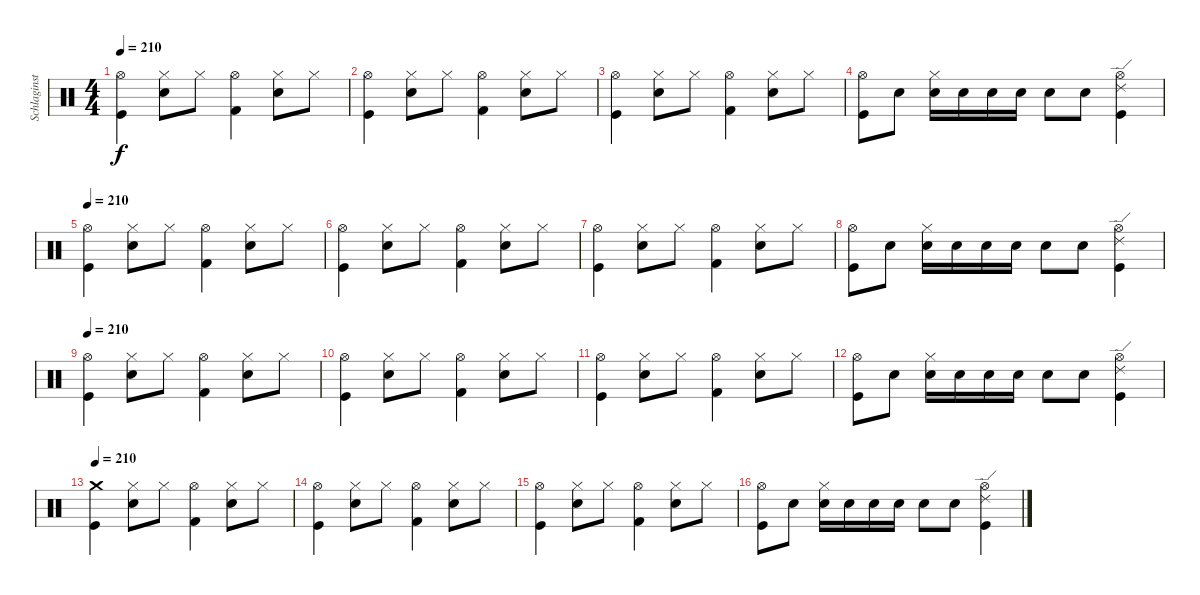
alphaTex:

\track ("Schlaginstrumente - Auswahl" "Schlaginst") {instrument percussion}
\staff {score}
\articulation defaults
\ts (4 4)
\tempo 210
\clef neutral
\ks c
("Hi-Hat (open)" "Kick (hit)").4{dy f} ("Hi-Hat (closed)" "Snare (hit) 2").8 "Hi-Hat (closed)".8 ("Hi-Hat (open)" "Kick (hit) 2").4 ("Hi-Hat (closed)" "Snare (hit) 2").8 "Hi-Hat (closed)".8 |
("Hi-Hat (open)" "Kick (hit)").4 ("Hi-Hat (closed)" "Snare (hit) 2").8 "Hi-Hat (closed)".8 ("Hi-Hat (open)" "Kick (hit) 2").4 ("Hi-Hat (closed)" "Snare (hit) 2").8 "Hi-Hat (closed)".8 |
("Hi-Hat (open)" "Kick (hit)").4 ("Hi-Hat (closed)" "Snare (hit) 2").8 "Hi-Hat (closed)".8 ("Hi-Hat (open)" "Kick (hit) 2").4 ("Hi-Hat (closed)" "Snare (hit) 2").8 "Hi-Hat (closed)".8 |
("Hi-Hat (open)" "Kick (hit)").8 "Snare (hit) 2".8 ("Hi-Hat (closed)" "Snare (hit) 2").16 "Snare (hit) 2".16 "Snare (hit) 2".16 "Snare (hit) 2".16 "Snare (hit) 2".8 "Snare (hit) 2".8 ("Hi-Hat (open)" "Ride (edge) 2" "Kick (hit)").4 |
\tempo 210
("Hi-Hat (open)" "Kick (hit)").4 ("Hi-Hat (closed)" "Snare (hit) 2").8 "Hi-Hat (closed)".8 ("Hi-Hat (open)" "Kick (hit) 2").4 ("Hi-Hat (closed)" "Snare (hit) 2").8 "Hi-Hat (closed)".8 |
("Hi-Hat (open)" "Kick (hit)").4 ("Hi-Hat (closed)" "Snare (hit) 2").8 "Hi-Hat (closed)".8 ("Hi-Hat (open)" "Kick (hit) 2").4 ("Hi-Hat (closed)" "Snare (hit) 2").8 "Hi-Hat (closed)".8 |
("Hi-Hat (open)" "Kick (hit)").4 ("Hi-Hat (closed)" "Snare (hit) 2").8 "Hi-Hat (closed)".8 ("Hi-Hat (open)" "Kick (hit) 2").4 ("Hi-Hat (closed)" "Snare (hit) 2").8 "Hi-Hat (closed)".8 |
("Hi-Hat (open)" "Kick (hit)").8 "Snare (hit) 2".8 ("Hi-Hat (closed)" "Snare (hit) 2").16 "Snare (hit) 2".16 "Snare (hit) 2".16 "Snare (hit) 2".16 "Snare (hit) 2".8 "Snare (hit) 2".8 ("Hi-Hat (open)" "Ride (edge) 2" "Kick (hit)").4 |
\tempo 210
("Hi-Hat (open)" "Kick (hit)").4 ("Hi-Hat (closed)" "Snare (hit) 2").8 "Hi-Hat (closed)".8 ("Hi-Hat (open)" "Kick (hit) 2").4 ("Hi-Hat (closed)" "Snare (hit) 2").8 "Hi-Hat (closed)".8 |
("Hi-Hat (open)" "Kick (hit)").4 ("Hi-Hat (closed)" "Snare (hit) 2").8 "Hi-Hat (closed)".8 ("Hi-Hat (open)" "Kick (hit) 2").4 ("Hi-Hat (closed)" "Snare (hit) 2").8 "Hi-Hat (closed)".8 |
("Hi-Hat (open)" "Kick (hit)").4 ("Hi-Hat (closed)" "Snare (hit) 2").8 "Hi-Hat (closed)".8 ("Hi-Hat (open)" "Kick (hit) 2").4 ("Hi-Hat (closed)" "Snare (hit) 2").8 "Hi-Hat (closed)".8 |
("Hi-Hat (open)" "Kick (hit)").8 "Snare (hit) 2".8 ("Hi-Hat (closed)" "Snare (hit) 2").16 "Snare (hit) 2".16 "Snare (hit) 2".16 "Snare (hit) 2".16 "Snare (hit) 2".8 "Snare (hit) 2".8 ("Hi-Hat (open)" "Ride (edge) 2" "Kick (hit)").4 |
\tempo 210
("Crash medium (hit)" "Kick (hit)").4 ("Hi-Hat (closed)" "Snare (hit) 2").8 "Hi-Hat (closed)".8 ("Hi-Hat (open)" "Kick (hit) 2").4 ("Hi-Hat (closed)" "Snare (hit) 2").8 "Hi-Hat (closed)".8 |
("Hi-Hat (open)" "Kick (hit)").4 ("Hi-Hat (closed)" "Snare (hit) 2").8 "Hi-Hat (closed)".8 ("Hi-Hat (open)" "Kick (hit) 2").4 ("Hi-Hat (closed)" "Snare (hit) 2").8 "Hi-Hat (closed)".8 |
("Hi-Hat (open)" "Kick (hit)").4 ("Hi-Hat (closed)" "Snare (hit) 2").8 "Hi-Hat (closed)".8 ("Hi-Hat (open)" "Kick (hit) 2").4 ("Hi-Hat (closed)" "Snare (hit) 2").8 "Hi-Hat (closed)".8 |
("Hi-Hat (open)" "Kick (hit)").8 "Snare (hit) 2".8 ("Hi-Hat (closed)" "Snare (hit) 2").16 "Snare (hit) 2".16 "Snare (hit) 2".16 "Snare (hit) 2".16 "Snare (hit) 2".8 "Snare (hit) 2".8 ("Hi-Hat (open)" "Ride (edge) 2" "Kick (hit)").4
